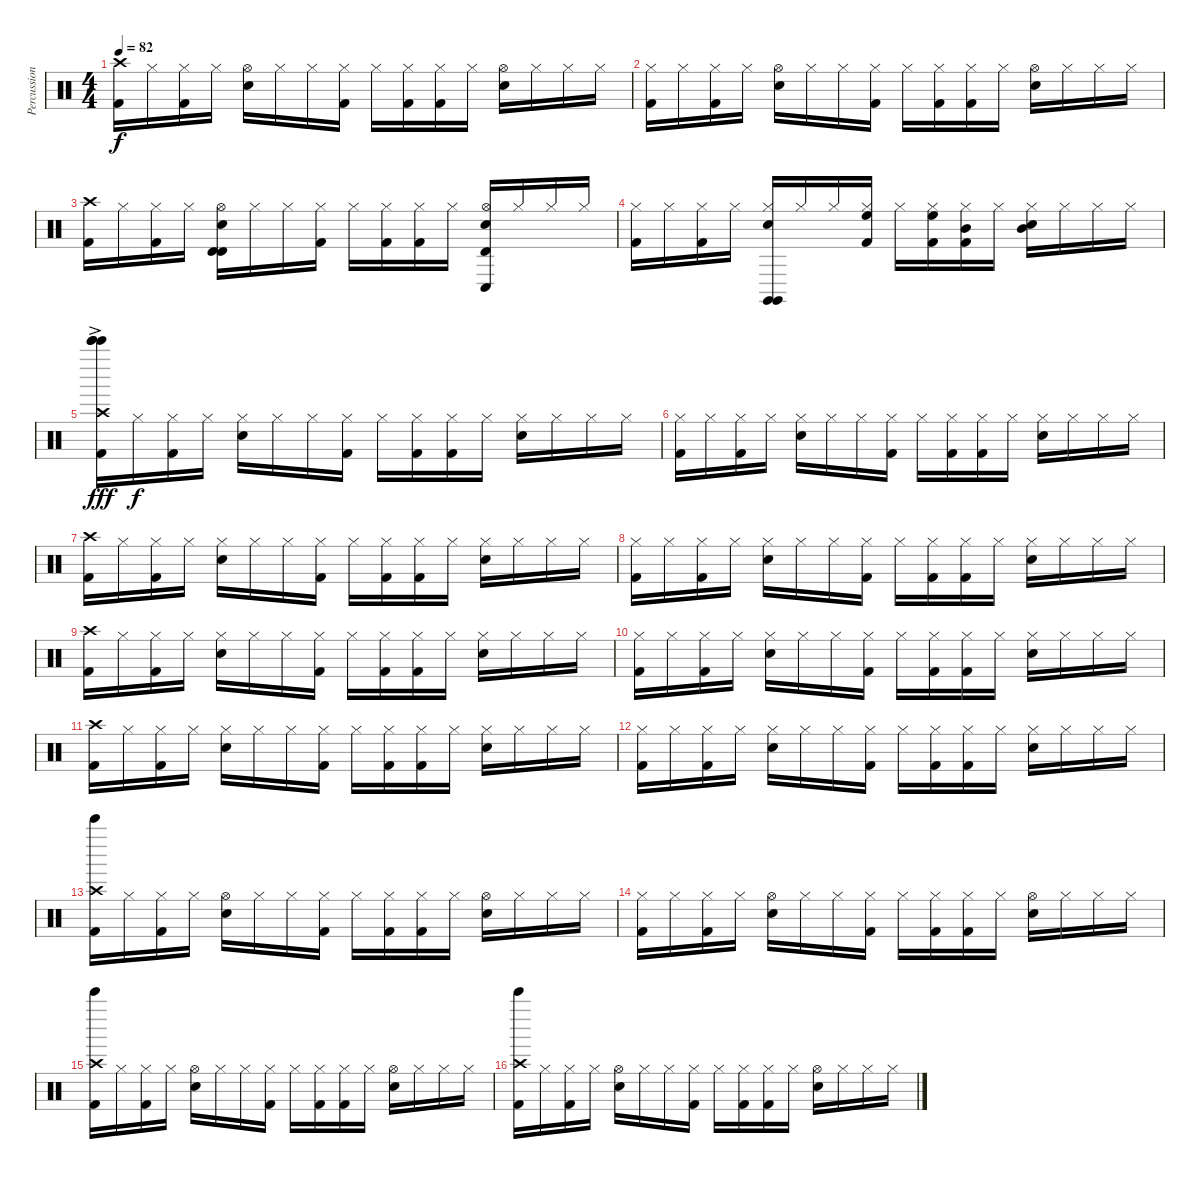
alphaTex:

\track ("Percussion" "Percussion") {instrument percussion}
\staff {score}
\articulation defaults
\ts (4 4)
\tempo 82
\clef neutral
\ks c
("Crash high (hit)" "Kick (hit) 2").16{dy f} "Hi-Hat (closed)".16 ("Hi-Hat (closed)" "Kick (hit) 2").16 "Hi-Hat (closed)".16 ("Hi-Hat (open)" "Snare (hit) 2").16 "Hi-Hat (closed)".16 "Hi-Hat (closed)".16 ("Hi-Hat (closed)" "Kick (hit) 2").16 "Hi-Hat (closed)".16 ("Hi-Hat (closed)" "Kick (hit) 2").16 ("Hi-Hat (closed)" "Kick (hit) 2").16 "Hi-Hat (closed)".16 ("Hi-Hat (open)" "Snare (hit) 2").16 "Hi-Hat (closed)".16 "Hi-Hat (closed)".16 "Hi-Hat (closed)".16 |
("Hi-Hat (closed)" "Kick (hit) 2").16 "Hi-Hat (closed)".16 ("Hi-Hat (closed)" "Kick (hit) 2").16 "Hi-Hat (closed)".16 ("Hi-Hat (open)" "Snare (hit) 2").16 "Hi-Hat (closed)".16 "Hi-Hat (closed)".16 ("Hi-Hat (closed)" "Kick (hit) 2").16 "Hi-Hat (closed)".16 ("Hi-Hat (closed)" "Kick (hit) 2").16 ("Hi-Hat (closed)" "Kick (hit) 2").16 "Hi-Hat (closed)".16 ("Hi-Hat (open)" "Snare (hit) 2").16 "Hi-Hat (closed)".16 "Hi-Hat (closed)".16 "Hi-Hat (closed)".16 |
("Crash high (hit)" "Kick (hit) 2").16 "Hi-Hat (closed)".16 ("Hi-Hat (closed)" "Kick (hit) 2").16 "Hi-Hat (closed)".16 ("Hi-Hat (open)" "Snare (hit) 2" "Timbale high (hit)" "Timbale high (hit)").16 "Hi-Hat (closed)".16 "Hi-Hat (closed)".16 ("Hi-Hat (closed)" "Kick (hit) 2").16 "Hi-Hat (closed)".16 ("Hi-Hat (closed)" "Kick (hit) 2").16 ("Hi-Hat (closed)" "Kick (hit) 2").16 "Hi-Hat (closed)".16 ("Hi-Hat (open)" "Snare (hit) 2" "Timbale high (hit)" "Conga low (hit)").16 "Hi-Hat (closed)".16 "Hi-Hat (closed)".16 "Hi-Hat (closed)".16 |
("Hi-Hat (closed)" "Kick (hit) 2").16 "Hi-Hat (closed)".16 ("Hi-Hat (closed)" "Kick (hit) 2").16 "Hi-Hat (closed)".16 ("Hi-Hat (closed)" "Snare (hit) 2" "Claves (hit)" "Claves (hit)").16 "Hi-Hat (closed)".16 "Hi-Hat (closed)".16 ("Hi-Hat (closed)" "High Floor Tom (hit)" "Kick (hit) 2").16 "Hi-Hat (closed)".16 ("Hi-Hat (closed)" "High Floor Tom (hit)" "Kick (hit) 2").16 ("Hi-Hat (closed)" "Mid Tom (hit)" "Kick (hit) 2").16 "Hi-Hat (closed)".16 ("Hi-Hat (closed)" "Snare (hit) 2" "Mid Tom (hit)").16 "Hi-Hat (closed)".16 "Hi-Hat (closed)".16 "Hi-Hat (closed)".16 |
("Bell Tree (hit)" "Bell Tree (hit)" "Bell Tree (hit)"{ac} "Crash high (hit)" "Kick (hit) 2").16{dy fff} "Hi-Hat (closed)".16{dy f} ("Hi-Hat (closed)" "Kick (hit) 2").16 "Hi-Hat (closed)".16 ("Hi-Hat (closed)" "Snare (hit) 2").16 "Hi-Hat (closed)".16 "Hi-Hat (closed)".16 ("Hi-Hat (closed)" "Kick (hit) 2").16 "Hi-Hat (closed)".16 ("Hi-Hat (closed)" "Kick (hit) 2").16 ("Hi-Hat (closed)" "Kick (hit) 2").16 "Hi-Hat (closed)".16 ("Hi-Hat (closed)" "Snare (hit) 2").16 "Hi-Hat (closed)".16 "Hi-Hat (closed)".16 "Hi-Hat (closed)".16 |
("Hi-Hat (closed)" "Kick (hit) 2").16 "Hi-Hat (closed)".16 ("Hi-Hat (closed)" "Kick (hit) 2").16 "Hi-Hat (closed)".16 ("Hi-Hat (closed)" "Snare (hit) 2").16 "Hi-Hat (closed)".16 "Hi-Hat (closed)".16 ("Hi-Hat (closed)" "Kick (hit) 2").16 "Hi-Hat (closed)".16 ("Hi-Hat (closed)" "Kick (hit) 2").16 ("Hi-Hat (closed)" "Kick (hit) 2").16 "Hi-Hat (closed)".16 ("Hi-Hat (closed)" "Snare (hit) 2").16 "Hi-Hat (closed)".16 "Hi-Hat (closed)".16 "Hi-Hat (closed)".16 |
("Crash high (hit)" "Kick (hit) 2").16 "Hi-Hat (closed)".16 ("Hi-Hat (closed)" "Kick (hit) 2").16 "Hi-Hat (closed)".16 ("Hi-Hat (closed)" "Snare (hit) 2").16 "Hi-Hat (closed)".16 "Hi-Hat (closed)".16 ("Hi-Hat (closed)" "Kick (hit) 2").16 "Hi-Hat (closed)".16 ("Hi-Hat (closed)" "Kick (hit) 2").16 ("Hi-Hat (closed)" "Kick (hit) 2").16 "Hi-Hat (closed)".16 ("Hi-Hat (closed)" "Snare (hit) 2").16 "Hi-Hat (closed)".16 "Hi-Hat (closed)".16 "Hi-Hat (closed)".16 |
("Hi-Hat (closed)" "Kick (hit) 2").16 "Hi-Hat (closed)".16 ("Hi-Hat (closed)" "Kick (hit) 2").16 "Hi-Hat (closed)".16 ("Hi-Hat (closed)" "Snare (hit) 2").16 "Hi-Hat (closed)".16 "Hi-Hat (closed)".16 ("Hi-Hat (closed)" "Kick (hit) 2").16 "Hi-Hat (closed)".16 ("Hi-Hat (closed)" "Kick (hit) 2").16 ("Hi-Hat (closed)" "Kick (hit) 2").16 "Hi-Hat (closed)".16 ("Hi-Hat (closed)" "Snare (hit) 2").16 "Hi-Hat (closed)".16 "Hi-Hat (closed)".16 "Hi-Hat (closed)".16 |
("Crash high (hit)" "Kick (hit) 2").16 "Hi-Hat (closed)".16 ("Hi-Hat (closed)" "Kick (hit) 2").16 "Hi-Hat (closed)".16 ("Hi-Hat (closed)" "Snare (hit) 2").16 "Hi-Hat (closed)".16 "Hi-Hat (closed)".16 ("Hi-Hat (closed)" "Kick (hit) 2").16 "Hi-Hat (closed)".16 ("Hi-Hat (closed)" "Kick (hit) 2").16 ("Hi-Hat (closed)" "Kick (hit) 2").16 "Hi-Hat (closed)".16 ("Hi-Hat (closed)" "Snare (hit) 2").16 "Hi-Hat (closed)".16 "Hi-Hat (closed)".16 "Hi-Hat (closed)".16 |
("Hi-Hat (closed)" "Kick (hit) 2").16 "Hi-Hat (closed)".16 ("Hi-Hat (closed)" "Kick (hit) 2").16 "Hi-Hat (closed)".16 ("Hi-Hat (closed)" "Snare (hit) 2").16 "Hi-Hat (closed)".16 "Hi-Hat (closed)".16 ("Hi-Hat (closed)" "Kick (hit) 2").16 "Hi-Hat (closed)".16 ("Hi-Hat (closed)" "Kick (hit) 2").16 ("Hi-Hat (closed)" "Kick (hit) 2").16 "Hi-Hat (closed)".16 ("Hi-Hat (closed)" "Snare (hit) 2").16 "Hi-Hat (closed)".16 "Hi-Hat (closed)".16 "Hi-Hat (closed)".16 |
("Crash high (hit)" "Kick (hit) 2").16 "Hi-Hat (closed)".16 ("Hi-Hat (closed)" "Kick (hit) 2").16 "Hi-Hat (closed)".16 ("Hi-Hat (closed)" "Snare (hit) 2").16 "Hi-Hat (closed)".16 "Hi-Hat (closed)".16 ("Hi-Hat (closed)" "Kick (hit) 2").16 "Hi-Hat (closed)".16 ("Hi-Hat (closed)" "Kick (hit) 2").16 ("Hi-Hat (closed)" "Kick (hit) 2").16 "Hi-Hat (closed)".16 ("Hi-Hat (closed)" "Snare (hit) 2").16 "Hi-Hat (closed)".16 "Hi-Hat (closed)".16 "Hi-Hat (closed)".16 |
("Hi-Hat (closed)" "Kick (hit) 2").16 "Hi-Hat (closed)".16 ("Hi-Hat (closed)" "Kick (hit) 2").16 "Hi-Hat (closed)".16 ("Hi-Hat (closed)" "Snare (hit) 2").16 "Hi-Hat (closed)".16 "Hi-Hat (closed)".16 ("Hi-Hat (closed)" "Kick (hit) 2").16 "Hi-Hat (closed)".16 ("Hi-Hat (closed)" "Kick (hit) 2").16 ("Hi-Hat (closed)" "Kick (hit) 2").16 "Hi-Hat (closed)".16 ("Hi-Hat (closed)" "Snare (hit) 2").16 "Hi-Hat (closed)".16 "Hi-Hat (closed)".16 "Hi-Hat (closed)".16 |
("Crash high (hit)" "Bell Tree (hit)" "Kick (hit) 2").16 "Hi-Hat (closed)".16 ("Hi-Hat (closed)" "Kick (hit) 2").16 "Hi-Hat (closed)".16 ("Hi-Hat (open)" "Snare (hit) 2").16 "Hi-Hat (closed)".16 "Hi-Hat (closed)".16 ("Hi-Hat (closed)" "Kick (hit) 2").16 "Hi-Hat (closed)".16 ("Hi-Hat (closed)" "Kick (hit) 2").16 ("Hi-Hat (closed)" "Kick (hit) 2").16 "Hi-Hat (closed)".16 ("Hi-Hat (open)" "Snare (hit) 2").16 "Hi-Hat (closed)".16 "Hi-Hat (closed)".16 "Hi-Hat (closed)".16 |
("Hi-Hat (closed)" "Kick (hit) 2").16 "Hi-Hat (closed)".16 ("Hi-Hat (closed)" "Kick (hit) 2").16 "Hi-Hat (closed)".16 ("Hi-Hat (open)" "Snare (hit) 2").16 "Hi-Hat (closed)".16 "Hi-Hat (closed)".16 ("Hi-Hat (closed)" "Kick (hit) 2").16 "Hi-Hat (closed)".16 ("Hi-Hat (closed)" "Kick (hit) 2").16 ("Hi-Hat (closed)" "Kick (hit) 2").16 "Hi-Hat (closed)".16 ("Hi-Hat (open)" "Snare (hit) 2").16 "Hi-Hat (closed)".16 "Hi-Hat (closed)".16 "Hi-Hat (closed)".16 |
("Crash high (hit)" "Bell Tree (hit)" "Kick (hit) 2").16 "Hi-Hat (closed)".16 ("Hi-Hat (closed)" "Kick (hit) 2").16 "Hi-Hat (closed)".16 ("Hi-Hat (open)" "Snare (hit) 2").16 "Hi-Hat (closed)".16 "Hi-Hat (closed)".16 ("Hi-Hat (closed)" "Kick (hit) 2").16 "Hi-Hat (closed)".16 ("Hi-Hat (closed)" "Kick (hit) 2").16 ("Hi-Hat (closed)" "Kick (hit) 2").16 "Hi-Hat (closed)".16 ("Hi-Hat (open)" "Snare (hit) 2").16 "Hi-Hat (closed)".16 "Hi-Hat (closed)".16 "Hi-Hat (closed)".16 |
("Crash high (hit)" "Bell Tree (hit)" "Kick (hit) 2").16 "Hi-Hat (closed)".16 ("Hi-Hat (closed)" "Kick (hit) 2").16 "Hi-Hat (closed)".16 ("Hi-Hat (open)" "Snare (hit) 2").16 "Hi-Hat (closed)".16 "Hi-Hat (closed)".16 ("Hi-Hat (closed)" "Kick (hit) 2").16 "Hi-Hat (closed)".16 ("Hi-Hat (closed)" "Kick (hit) 2").16 ("Hi-Hat (closed)" "Kick (hit) 2").16 "Hi-Hat (closed)".16 ("Hi-Hat (open)" "Snare (hit) 2").16 "Hi-Hat (closed)".16 "Hi-Hat (closed)".16 "Hi-Hat (closed)".16
